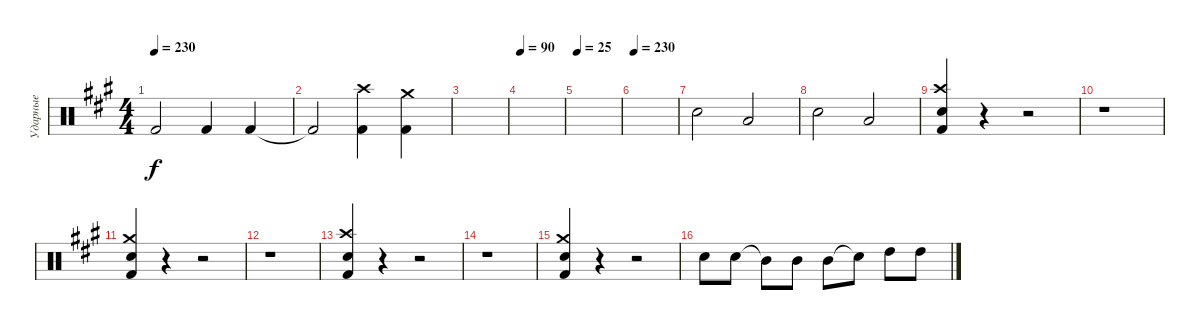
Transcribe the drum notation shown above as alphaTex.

\track ("Ударные" "Ударные") {instrument percussion}
\staff {score}
\articulation defaults
\ts (4 4)
\tempo 230
\clef neutral
\ks a "Kick (hit) 2".2{dy f} "Kick (hit) 2".4 "Kick (hit) 2".4
|
"Kick (hit) 2"{t}.2 ("Crash high (hit)" "Kick (hit) 2").4 ("Crash medium (hit)" "Kick (hit) 2").4 |
|
\tempo 90
|
\tempo 25
|
\tempo 230
|
"Electric Snare (hit)".2 "Low Tom (hit)".2 |
"Electric Snare (hit)".2 "Low Tom (hit)".2 |
("Crash high (hit)" "Electric Snare (hit)" "Kick (hit) 2").4 r.4 r.2 |
r.1 |
("Crash medium (hit)" "Kick (hit) 2" "Electric Snare (hit)").4 r.4 r.2 |
r.1 |
("Crash high (hit)" "Electric Snare (hit)" "Kick (hit) 2").4 r.4 r.2 |
r.1 |
("Crash medium (hit)" "Kick (hit) 2" "Electric Snare (hit)").4 r.4 r.2 |
"Electric Snare (hit)".8 "Electric Snare (hit)".8 "Mid Tom (hit)"{t}.8 "Mid Tom (hit)".8 "Mid Tom (hit)".8 "Snare (hit)"{t}.8 "High Tom (hit)".8 "High Tom (hit)".8
